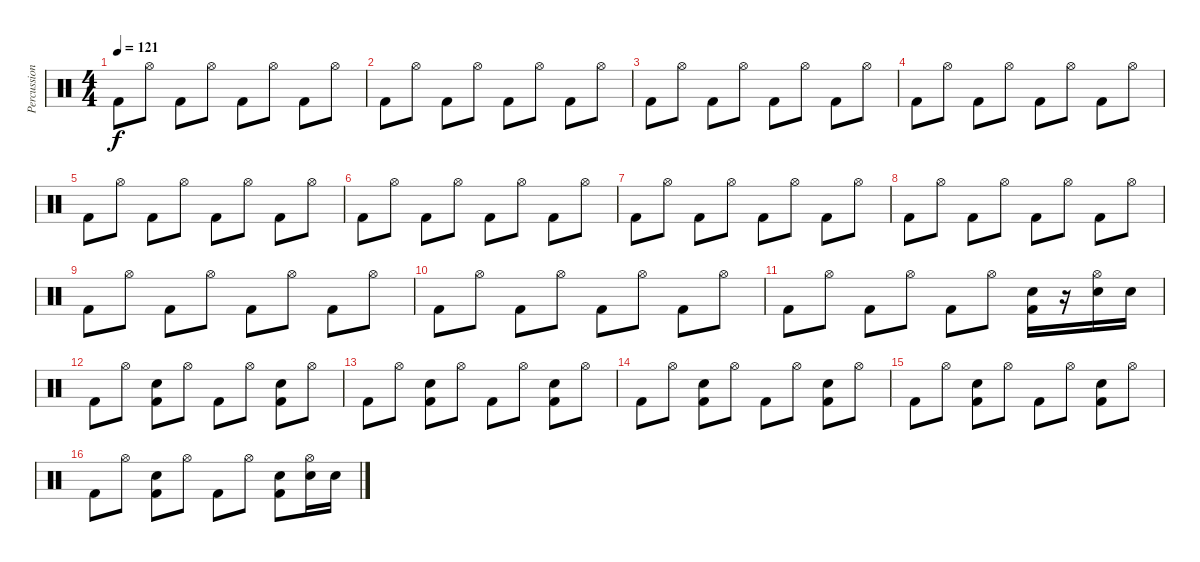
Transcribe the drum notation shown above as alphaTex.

\track ("Percussions" "Percussion") {instrument percussion}
\staff {score}
\articulation defaults
\ts (4 4)
\tempo 121
\clef neutral
\ks c "Kick (hit) 2".8{dy f} "Hi-Hat (open)".8 "Kick (hit) 2".8 "Hi-Hat (open)".8 "Kick (hit) 2".8 "Hi-Hat (open)".8 "Kick (hit) 2".8 "Hi-Hat (open)".8
|
"Kick (hit) 2".8 "Hi-Hat (open)".8 "Kick (hit) 2".8 "Hi-Hat (open)".8 "Kick (hit) 2".8 "Hi-Hat (open)".8 "Kick (hit) 2".8 "Hi-Hat (open)".8 |
"Kick (hit) 2".8 "Hi-Hat (open)".8 "Kick (hit) 2".8 "Hi-Hat (open)".8 "Kick (hit) 2".8 "Hi-Hat (open)".8 "Kick (hit) 2".8 "Hi-Hat (open)".8 |
"Kick (hit) 2".8 "Hi-Hat (open)".8 "Kick (hit) 2".8 "Hi-Hat (open)".8 "Kick (hit) 2".8 "Hi-Hat (open)".8 "Kick (hit) 2".8 "Hi-Hat (open)".8 |
"Kick (hit) 2".8 "Hi-Hat (open)".8 "Kick (hit) 2".8 "Hi-Hat (open)".8 "Kick (hit) 2".8 "Hi-Hat (open)".8 "Kick (hit) 2".8 "Hi-Hat (open)".8 |
"Kick (hit) 2".8 "Hi-Hat (open)".8 "Kick (hit) 2".8 "Hi-Hat (open)".8 "Kick (hit) 2".8 "Hi-Hat (open)".8 "Kick (hit) 2".8 "Hi-Hat (open)".8 |
"Kick (hit) 2".8 "Hi-Hat (open)".8 "Kick (hit) 2".8 "Hi-Hat (open)".8 "Kick (hit) 2".8 "Hi-Hat (open)".8 "Kick (hit) 2".8 "Hi-Hat (open)".8 |
"Kick (hit) 2".8 "Hi-Hat (open)".8 "Kick (hit) 2".8 "Hi-Hat (open)".8 "Kick (hit) 2".8 "Hi-Hat (open)".8 "Kick (hit) 2".8 "Hi-Hat (open)".8 |
"Kick (hit) 2".8 "Hi-Hat (open)".8 "Kick (hit) 2".8 "Hi-Hat (open)".8 "Kick (hit) 2".8 "Hi-Hat (open)".8 "Kick (hit) 2".8 "Hi-Hat (open)".8 |
"Kick (hit) 2".8 "Hi-Hat (open)".8 "Kick (hit) 2".8 "Hi-Hat (open)".8 "Kick (hit) 2".8 "Hi-Hat (open)".8 "Kick (hit) 2".8 "Hi-Hat (open)".8 |
"Kick (hit) 2".8 "Hi-Hat (open)".8 "Kick (hit) 2".8 "Hi-Hat (open)".8 "Kick (hit) 2".8 "Hi-Hat (open)".8 ("Kick (hit) 2" "Electric Snare (hit)").16 r.16 ("Hi-Hat (open)" "Electric Snare (hit)").16 "Electric Snare (hit)".16 |
"Kick (hit) 2".8 "Hi-Hat (open)".8 ("Kick (hit) 2" "Electric Snare (hit)").8 "Hi-Hat (open)".8 "Kick (hit) 2".8 "Hi-Hat (open)".8 ("Kick (hit) 2" "Electric Snare (hit)").8 "Hi-Hat (open)".8 |
"Kick (hit) 2".8 "Hi-Hat (open)".8 ("Kick (hit) 2" "Electric Snare (hit)").8 "Hi-Hat (open)".8 "Kick (hit) 2".8 "Hi-Hat (open)".8 ("Kick (hit) 2" "Electric Snare (hit)").8 "Hi-Hat (open)".8 |
"Kick (hit) 2".8 "Hi-Hat (open)".8 ("Kick (hit) 2" "Electric Snare (hit)").8 "Hi-Hat (open)".8 "Kick (hit) 2".8 "Hi-Hat (open)".8 ("Kick (hit) 2" "Electric Snare (hit)").8 "Hi-Hat (open)".8 |
"Kick (hit) 2".8 "Hi-Hat (open)".8 ("Kick (hit) 2" "Electric Snare (hit)").8 "Hi-Hat (open)".8 "Kick (hit) 2".8 "Hi-Hat (open)".8 ("Kick (hit) 2" "Electric Snare (hit)").8 "Hi-Hat (open)".8 |
"Kick (hit) 2".8 "Hi-Hat (open)".8 ("Kick (hit) 2" "Electric Snare (hit)").8 "Hi-Hat (open)".8 "Kick (hit) 2".8 "Hi-Hat (open)".8 ("Kick (hit) 2" "Electric Snare (hit)").8 ("Hi-Hat (open)" "Electric Snare (hit)").16 "Electric Snare (hit)".16
